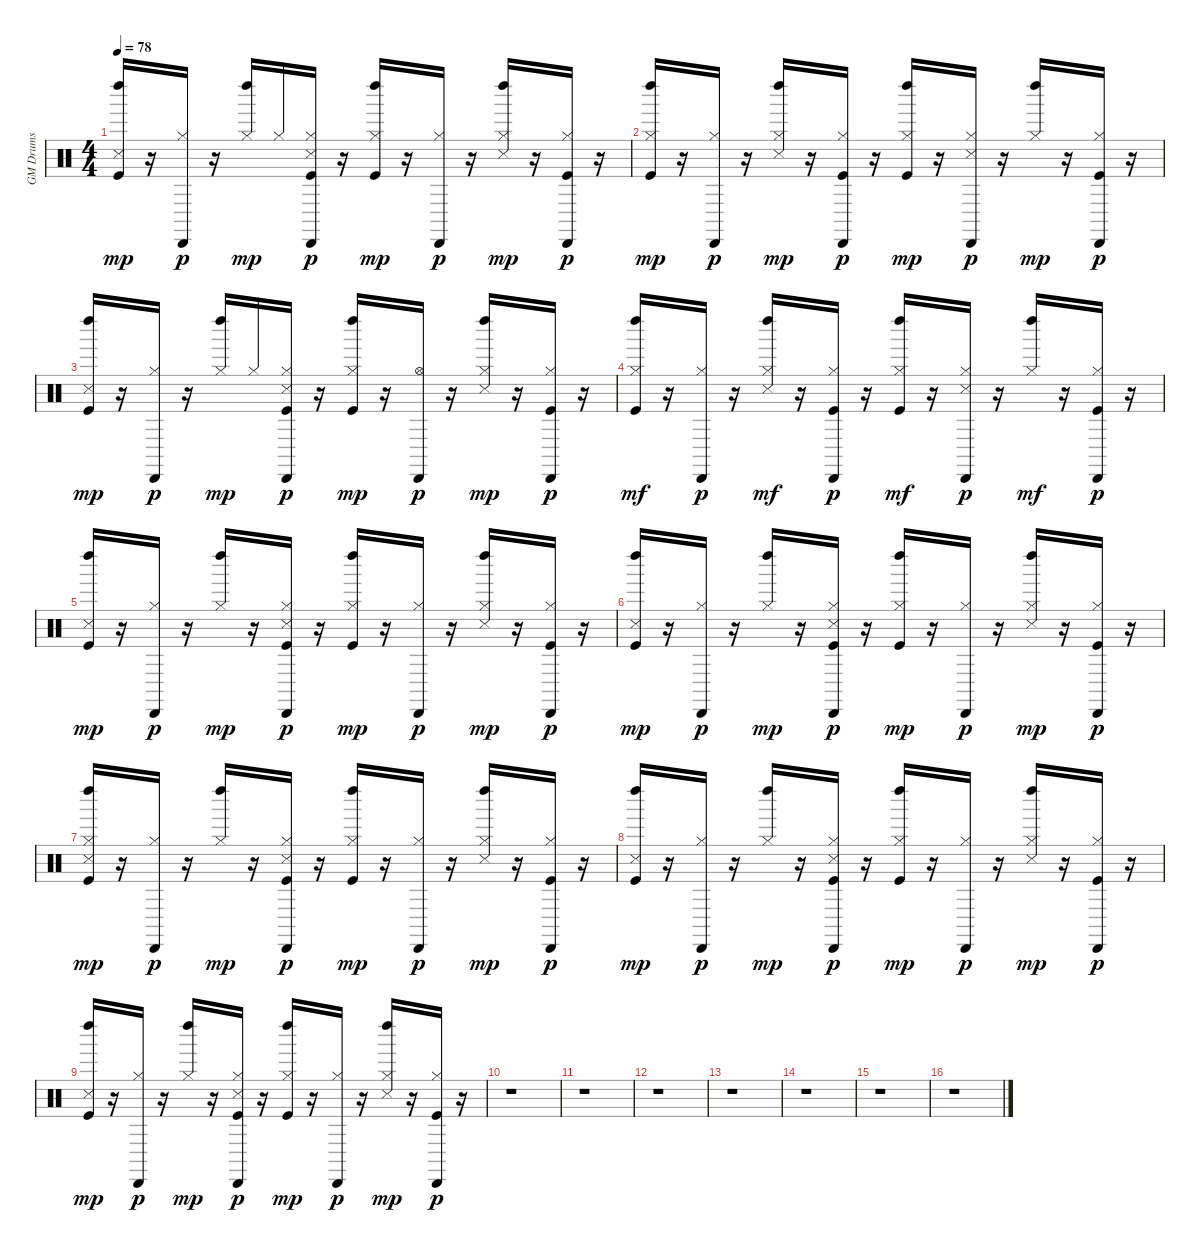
\track ("GM Drums" "GM Drums") {instrument percussion}
\staff {score}
\articulation defaults
\ts (4 4)
\tempo 78
\clef neutral
\ks c
("Kick (hit)" "Snare (side stick) 3" "Left Maraca (hit)").16{dy mp} r.16 ("Hi-Hat (closed)" "Cabasa (hit)").16{dy p} r.16 ("Hi-Hat (closed)" "Left Maraca (hit)").16{dy mp} "Hi-Hat (closed)".16 ("Kick (hit)" "Snare (side stick) 3" "Hi-Hat (closed)" "Cabasa (hit)").16{dy p} r.16 ("Kick (hit)" "Hi-Hat (closed)" "Left Maraca (hit)").16{dy mp} r.16 ("Hi-Hat (closed)" "Cabasa (hit)").16{dy p} r.16 ("Snare (side stick) 3" "Hi-Hat (closed)" "Left Maraca (hit)").16{dy mp} r.16 ("Kick (hit)" "Hi-Hat (closed)" "Cabasa (hit)").16{dy p} r.16 |
("Kick (hit)" "Hi-Hat (closed)" "Left Maraca (hit)").16{dy mp} r.16 ("Hi-Hat (closed)" "Cabasa (hit)").16{dy p} r.16 ("Snare (side stick) 3" "Hi-Hat (closed)" "Left Maraca (hit)").16{dy mp} r.16 ("Kick (hit)" "Hi-Hat (closed)" "Cabasa (hit)").16{dy p} r.16 ("Kick (hit)" "Hi-Hat (closed)" "Left Maraca (hit)").16{dy mp} r.16 ("Snare (side stick) 3" "Hi-Hat (closed)" "Cabasa (hit)").16{dy p} r.16 ("Hi-Hat (closed)" "Left Maraca (hit)").16{dy mp} r.16 ("Kick (hit)" "Hi-Hat (closed)" "Cabasa (hit)").16{dy p} r.16 |
("Kick (hit)" "Snare (side stick) 3" "Left Maraca (hit)").16{dy mp} r.16 ("Hi-Hat (closed)" "Cabasa (hit)").16{dy p} r.16 ("Hi-Hat (closed)" "Left Maraca (hit)").16{dy mp} "Hi-Hat (closed)".16 ("Kick (hit)" "Snare (side stick) 3" "Hi-Hat (closed)" "Cabasa (hit)").16{dy p} r.16 ("Kick (hit)" "Hi-Hat (closed)" "Left Maraca (hit)").16{dy mp} r.16 ("Hi-Hat (open)" "Cabasa (hit)").16{dy p} r.16 ("Snare (side stick) 3" "Hi-Hat (closed)" "Left Maraca (hit)").16{dy mp} r.16 ("Kick (hit)" "Hi-Hat (closed)" "Cabasa (hit)").16{dy p} r.16 |
("Kick (hit)" "Hi-Hat (closed)" "Left Maraca (hit)").16{dy mf} r.16 ("Hi-Hat (closed)" "Cabasa (hit)").16{dy p} r.16 ("Snare (side stick) 3" "Hi-Hat (closed)" "Left Maraca (hit)").16{dy mf} r.16 ("Kick (hit)" "Hi-Hat (closed)" "Cabasa (hit)").16{dy p} r.16 ("Kick (hit)" "Hi-Hat (closed)" "Left Maraca (hit)").16{dy mf} r.16 ("Snare (side stick) 3" "Hi-Hat (closed)" "Cabasa (hit)").16{dy p} r.16 ("Hi-Hat (closed)" "Left Maraca (hit)").16{dy mf} r.16 ("Kick (hit)" "Hi-Hat (closed)" "Cabasa (hit)").16{dy p} r.16 |
("Kick (hit)" "Snare (side stick) 3" "Left Maraca (hit)").16{dy mp} r.16 ("Hi-Hat (closed)" "Cabasa (hit)").16{dy p} r.16 ("Hi-Hat (closed)" "Left Maraca (hit)").16{dy mp} r.16 ("Kick (hit)" "Snare (side stick) 3" "Hi-Hat (closed)" "Cabasa (hit)").16{dy p} r.16 ("Kick (hit)" "Hi-Hat (closed)" "Left Maraca (hit)").16{dy mp} r.16 ("Hi-Hat (closed)" "Cabasa (hit)").16{dy p} r.16 ("Snare (side stick) 3" "Hi-Hat (closed)" "Left Maraca (hit)").16{dy mp} r.16 ("Kick (hit)" "Hi-Hat (closed)" "Cabasa (hit)").16{dy p} r.16 |
("Kick (hit)" "Snare (side stick) 3" "Left Maraca (hit)").16{dy mp} r.16 ("Hi-Hat (closed)" "Cabasa (hit)").16{dy p} r.16 ("Hi-Hat (closed)" "Left Maraca (hit)").16{dy mp} r.16 ("Kick (hit)" "Snare (side stick) 3" "Hi-Hat (closed)" "Cabasa (hit)").16{dy p} r.16 ("Kick (hit)" "Hi-Hat (closed)" "Left Maraca (hit)").16{dy mp} r.16 ("Hi-Hat (closed)" "Cabasa (hit)").16{dy p} r.16 ("Snare (side stick) 3" "Hi-Hat (closed)" "Left Maraca (hit)").16{dy mp} r.16 ("Kick (hit)" "Hi-Hat (closed)" "Cabasa (hit)").16{dy p} r.16 |
("Kick (hit)" "Snare (side stick) 3" "Hi-Hat (closed)" "Left Maraca (hit)").16{dy mp} r.16 ("Hi-Hat (closed)" "Cabasa (hit)").16{dy p} r.16 ("Hi-Hat (closed)" "Left Maraca (hit)").16{dy mp} r.16 ("Kick (hit)" "Snare (side stick) 3" "Hi-Hat (closed)" "Cabasa (hit)").16{dy p} r.16 ("Kick (hit)" "Hi-Hat (closed)" "Left Maraca (hit)").16{dy mp} r.16 ("Hi-Hat (closed)" "Cabasa (hit)").16{dy p} r.16 ("Snare (side stick) 3" "Hi-Hat (closed)" "Left Maraca (hit)").16{dy mp} r.16 ("Kick (hit)" "Hi-Hat (closed)" "Cabasa (hit)").16{dy p} r.16 |
("Kick (hit)" "Snare (side stick) 3" "Left Maraca (hit)").16{dy mp} r.16 ("Hi-Hat (closed)" "Cabasa (hit)").16{dy p} r.16 ("Hi-Hat (closed)" "Left Maraca (hit)").16{dy mp} r.16 ("Kick (hit)" "Snare (side stick) 3" "Hi-Hat (closed)" "Cabasa (hit)").16{dy p} r.16 ("Kick (hit)" "Hi-Hat (closed)" "Left Maraca (hit)").16{dy mp} r.16 ("Hi-Hat (closed)" "Cabasa (hit)").16{dy p} r.16 ("Snare (side stick) 3" "Hi-Hat (closed)" "Left Maraca (hit)").16{dy mp} r.16 ("Kick (hit)" "Hi-Hat (closed)" "Cabasa (hit)").16{dy p} r.16 |
("Kick (hit)" "Snare (side stick) 3" "Left Maraca (hit)").16{dy mp} r.16 ("Hi-Hat (closed)" "Cabasa (hit)").16{dy p} r.16 ("Hi-Hat (closed)" "Left Maraca (hit)").16{dy mp} r.16 ("Kick (hit)" "Snare (side stick) 3" "Hi-Hat (closed)" "Cabasa (hit)").16{dy p} r.16 ("Kick (hit)" "Hi-Hat (closed)" "Left Maraca (hit)").16{dy mp} r.16 ("Hi-Hat (closed)" "Cabasa (hit)").16{dy p} r.16 ("Snare (side stick) 3" "Hi-Hat (closed)" "Left Maraca (hit)").16{dy mp} r.16 ("Kick (hit)" "Hi-Hat (closed)" "Cabasa (hit)").16{dy p} r.16 |
r.1 |
r.1 |
r.1 |
r.1 |
r.1 |
r.1 |
r.1
